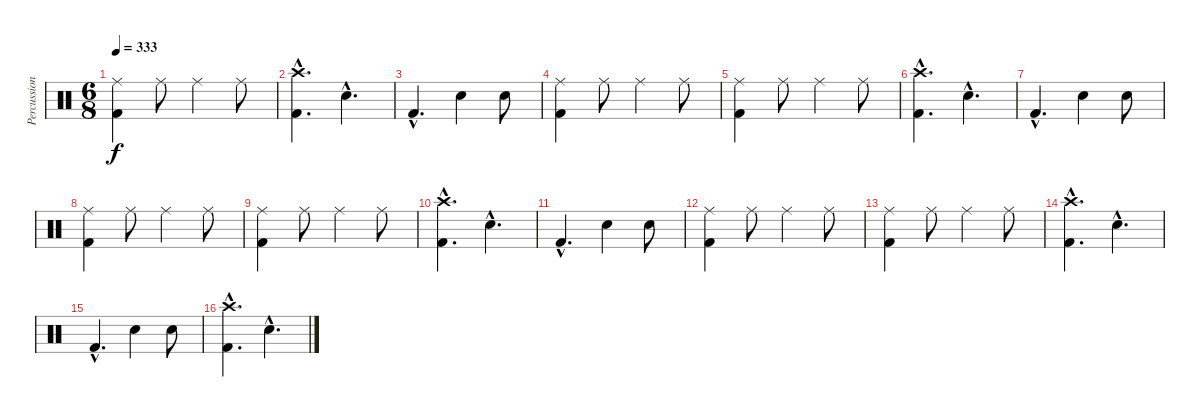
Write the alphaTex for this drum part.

\track ("Percussion" "Percussion") {instrument percussion}
\staff {score}
\articulation defaults
\ts (6 8)
\tempo 333
\clef neutral
\ks c
("Ride (middle)" "Kick (hit) 2").4{dy f} "Ride (middle)".8 "Ride (middle)".4 "Ride (middle)".8 |
("Crash high (hit)"{hac} "Kick (hit) 2"{hac}).4{d} "Snare (hit) 2"{hac}.4{d} |
"Kick (hit) 2"{hac}.4{d} "Electric Snare (hit)".4 "Electric Snare (hit)".8 |
("Ride (middle)" "Kick (hit) 2").4 "Ride (middle)".8 "Ride (middle)".4 "Ride (middle)".8 |
("Ride (middle)" "Kick (hit) 2").4 "Ride (middle)".8 "Ride (middle)".4 "Ride (middle)".8 |
("Crash high (hit)"{hac} "Kick (hit) 2"{hac}).4{d} "Snare (hit) 2"{hac}.4{d} |
"Kick (hit) 2"{hac}.4{d} "Electric Snare (hit)".4 "Electric Snare (hit)".8 |
("Ride (middle)" "Kick (hit) 2").4 "Ride (middle)".8 "Ride (middle)".4 "Ride (middle)".8 |
("Ride (middle)" "Kick (hit) 2").4 "Ride (middle)".8 "Ride (middle)".4 "Ride (middle)".8 |
("Crash high (hit)"{hac} "Kick (hit) 2"{hac}).4{d} "Snare (hit) 2"{hac}.4{d} |
"Kick (hit) 2"{hac}.4{d} "Electric Snare (hit)".4 "Electric Snare (hit)".8 |
("Ride (middle)" "Kick (hit) 2").4 "Ride (middle)".8 "Ride (middle)".4 "Ride (middle)".8 |
("Ride (middle)" "Kick (hit) 2").4 "Ride (middle)".8 "Ride (middle)".4 "Ride (middle)".8 |
("Crash high (hit)"{hac} "Kick (hit) 2"{hac}).4{d} "Snare (hit) 2"{hac}.4{d} |
"Kick (hit) 2"{hac}.4{d} "Electric Snare (hit)".4 "Electric Snare (hit)".8 |
("Crash high (hit)"{hac} "Kick (hit) 2"{hac}).4{d} "Snare (hit) 2"{hac}.4{d}
